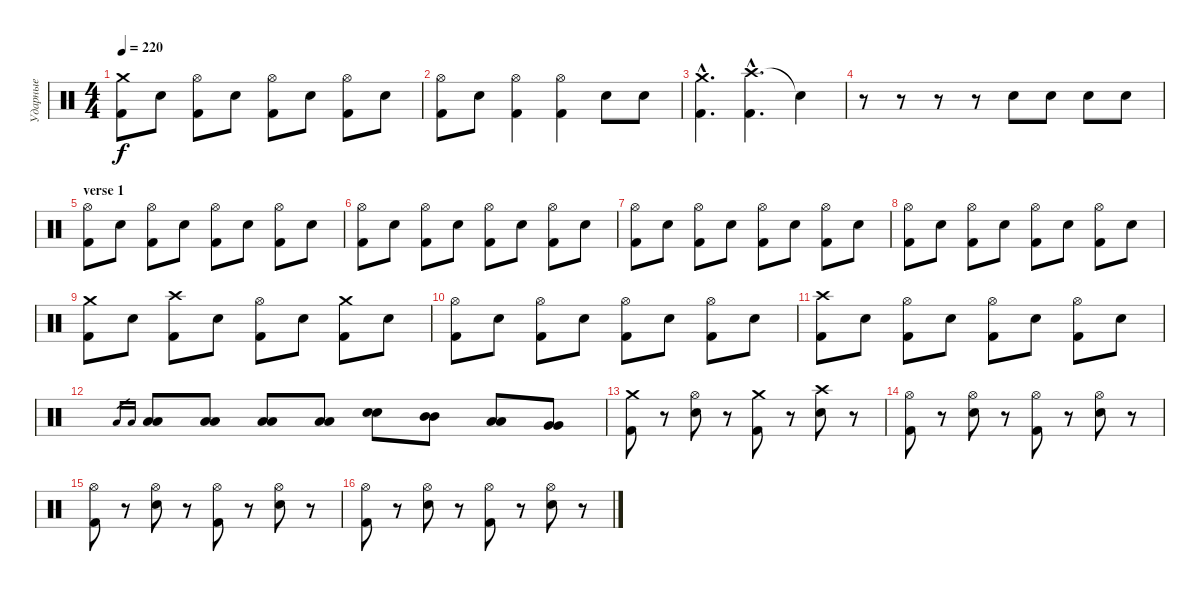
\track ("Ударные" "Ударные") {instrument percussion}
\staff {score}
\articulation defaults
\ts (4 4)
\tempo 220
\clef neutral
\ks c
("Crash medium (hit)" "Kick (hit) 2").8{dy f} "Electric Snare (hit)".8 ("Hi-Hat (open)" "Kick (hit) 2").8 "Electric Snare (hit)".8 ("Hi-Hat (open)" "Kick (hit) 2").8 "Electric Snare (hit)".8 ("Hi-Hat (open)" "Kick (hit) 2").8 "Electric Snare (hit)".8 |
("Hi-Hat (open)" "Kick (hit) 2").8 "Electric Snare (hit)".8 ("Hi-Hat (open)" "Kick (hit) 2").4 ("Hi-Hat (open)" "Kick (hit) 2").4 "Electric Snare (hit)".8 "Electric Snare (hit)".8 |
("Crash medium (hit)"{hac} "Kick (hit) 2"{hac}).4{d} ("Crash high (hit)"{hac} "Kick (hit) 2"{hac}).4{d} "Snare (hit)"{t}.4 |
r.8 r.8 r.8 r.8 "Electric Snare (hit)".8 "Electric Snare (hit)".8 "Electric Snare (hit)".8 "Electric Snare (hit)".8 |
\section ("" "verse 1")
("Hi-Hat (open)" "Kick (hit) 2").8 "Electric Snare (hit)".8 ("Hi-Hat (open)" "Kick (hit) 2").8 "Electric Snare (hit)".8 ("Hi-Hat (open)" "Kick (hit) 2").8 "Electric Snare (hit)".8 ("Hi-Hat (open)" "Kick (hit) 2").8 "Electric Snare (hit)".8 |
("Hi-Hat (open)" "Kick (hit) 2").8 "Electric Snare (hit)".8 ("Hi-Hat (open)" "Kick (hit) 2").8 "Electric Snare (hit)".8 ("Hi-Hat (open)" "Kick (hit) 2").8 "Electric Snare (hit)".8 ("Hi-Hat (open)" "Kick (hit) 2").8 "Electric Snare (hit)".8 |
("Hi-Hat (open)" "Kick (hit) 2").8 "Electric Snare (hit)".8 ("Hi-Hat (open)" "Kick (hit) 2").8 "Electric Snare (hit)".8 ("Hi-Hat (open)" "Kick (hit) 2").8 "Electric Snare (hit)".8 ("Hi-Hat (open)" "Kick (hit) 2").8 "Electric Snare (hit)".8 |
("Hi-Hat (open)" "Kick (hit) 2").8 "Electric Snare (hit)".8 ("Hi-Hat (open)" "Kick (hit) 2").8 "Electric Snare (hit)".8 ("Hi-Hat (open)" "Kick (hit) 2").8 "Electric Snare (hit)".8 ("Hi-Hat (open)" "Kick (hit) 2").8 "Electric Snare (hit)".8 |
("Crash medium (hit)" "Kick (hit) 2").8 "Electric Snare (hit)".8 ("Crash high (hit)" "Kick (hit) 2").8 "Electric Snare (hit)".8 ("Hi-Hat (open)" "Kick (hit) 2").8 "Electric Snare (hit)".8 ("Crash medium (hit)" "Kick (hit) 2").8 "Electric Snare (hit)".8 |
("Hi-Hat (open)" "Kick (hit) 2").8 "Electric Snare (hit)".8 ("Hi-Hat (open)" "Kick (hit) 2").8 "Electric Snare (hit)".8 ("Hi-Hat (open)" "Kick (hit) 2").8 "Electric Snare (hit)".8 ("Hi-Hat (open)" "Kick (hit) 2").8 "Electric Snare (hit)".8 |
("Crash high (hit)" "Kick (hit) 2").8 "Electric Snare (hit)".8 ("Hi-Hat (open)" "Kick (hit) 2").8 "Electric Snare (hit)".8 ("Hi-Hat (open)" "Kick (hit) 2").8 "Electric Snare (hit)".8 ("Hi-Hat (open)" "Kick (hit) 2").8 "Electric Snare (hit)".8 |
"Low Tom (hit)".16{gr} "Low Tom (hit)".16{gr} ("Low Tom (hit)" "Low Tom (hit)").8 ("Low Tom (hit)" "Low Tom (hit)").8 ("Low Tom (hit)" "Low Tom (hit)").8 ("Low Tom (hit)" "Low Tom (hit)").8 ("Electric Snare (hit)" "Electric Snare (hit)").8 ("Mid Tom (hit)" "Mid Tom (hit)").8 ("Low Tom (hit)" "Low Tom (hit)").8 ("Very Low Tom (hit)" "Very Low Tom (hit)").8 |
("Crash medium (hit)" "Kick (hit) 2").8 r.8 ("Hi-Hat (open)" "Electric Snare (hit)").8 r.8 ("Crash medium (hit)" "Kick (hit) 2").8 r.8 ("Crash high (hit)" "Electric Snare (hit)").8 r.8 |
("Hi-Hat (open)" "Kick (hit) 2").8 r.8 ("Hi-Hat (open)" "Electric Snare (hit)").8 r.8 ("Hi-Hat (open)" "Kick (hit) 2").8 r.8 ("Hi-Hat (open)" "Electric Snare (hit)").8 r.8 |
("Hi-Hat (open)" "Kick (hit) 2").8 r.8 ("Hi-Hat (open)" "Electric Snare (hit)").8 r.8 ("Hi-Hat (open)" "Kick (hit) 2").8 r.8 ("Hi-Hat (open)" "Electric Snare (hit)").8 r.8 |
("Hi-Hat (open)" "Kick (hit) 2").8 r.8 ("Hi-Hat (open)" "Electric Snare (hit)").8 r.8 ("Hi-Hat (open)" "Kick (hit) 2").8 r.8 ("Hi-Hat (open)" "Electric Snare (hit)").8 r.8
